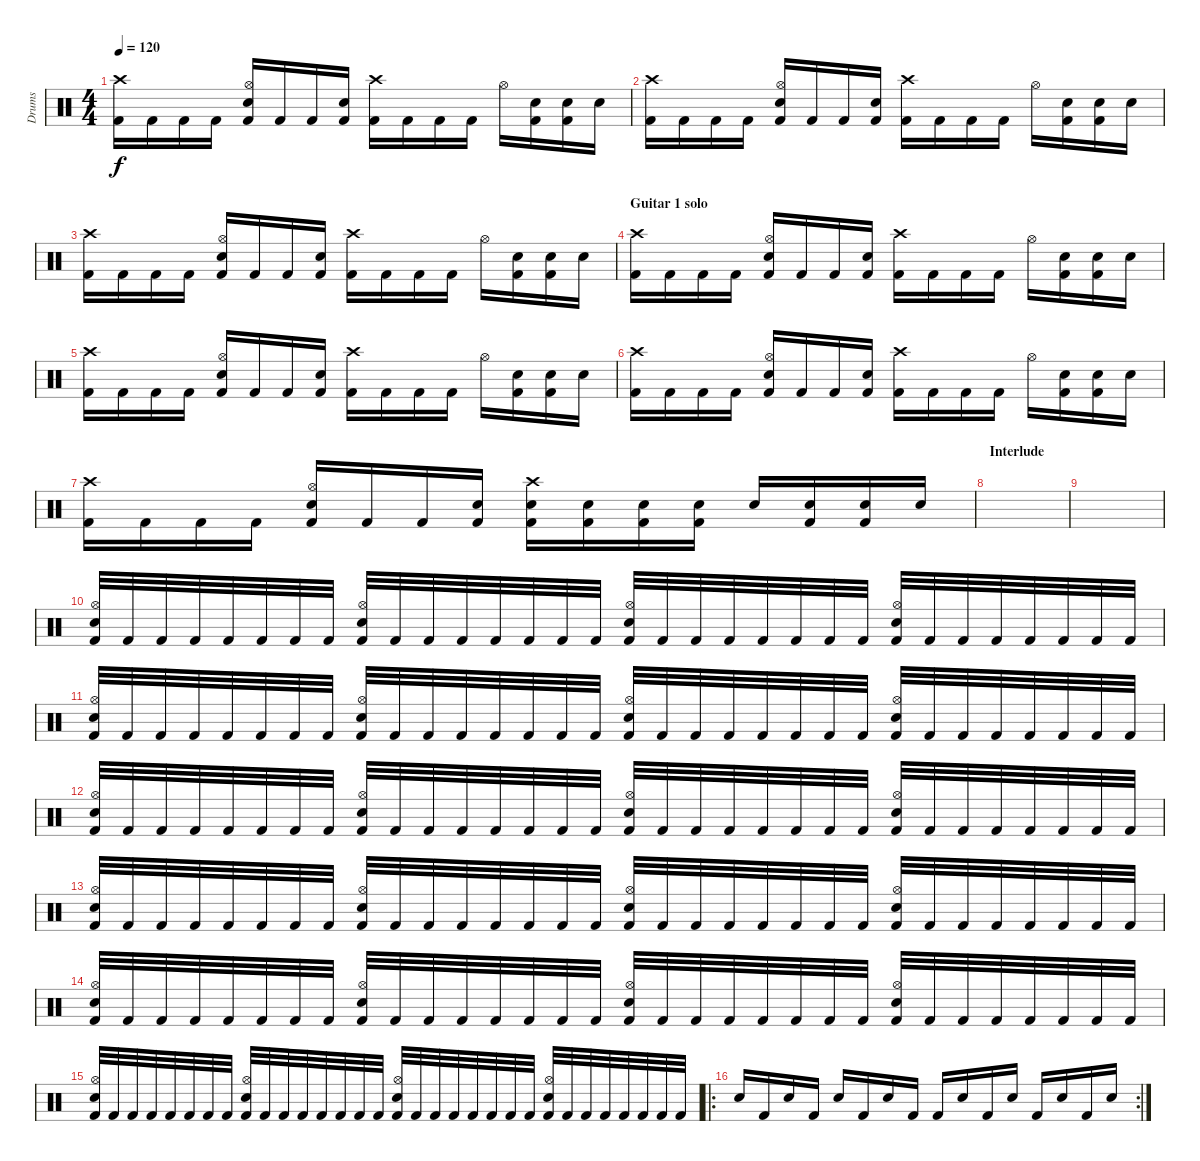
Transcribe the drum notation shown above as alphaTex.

\track ("Drums" "Drums") {instrument percussion}
\staff {score}
\articulation defaults
\ts (4 4)
\tempo 120
\clef neutral
\ks c
("Crash high (hit)" "Kick (hit) 2").16{dy f} "Kick (hit) 2".16 "Kick (hit) 2".16 "Kick (hit) 2".16 ("Hi-Hat (open)" "Electric Snare (hit)" "Kick (hit) 2").16 "Kick (hit) 2".16 "Kick (hit) 2".16 ("Electric Snare (hit)" "Kick (hit) 2").16 ("Crash high (hit)" "Kick (hit) 2").16 "Kick (hit) 2".16 "Kick (hit) 2".16 "Kick (hit) 2".16 "Hi-Hat (open)".16 ("Electric Snare (hit)" "Kick (hit) 2").16 ("Electric Snare (hit)" "Kick (hit) 2").16 "Electric Snare (hit)".16 |
("Crash high (hit)" "Kick (hit) 2").16 "Kick (hit) 2".16 "Kick (hit) 2".16 "Kick (hit) 2".16 ("Hi-Hat (open)" "Electric Snare (hit)" "Kick (hit) 2").16 "Kick (hit) 2".16 "Kick (hit) 2".16 ("Electric Snare (hit)" "Kick (hit) 2").16 ("Crash high (hit)" "Kick (hit) 2").16 "Kick (hit) 2".16 "Kick (hit) 2".16 "Kick (hit) 2".16 "Hi-Hat (open)".16 ("Electric Snare (hit)" "Kick (hit) 2").16 ("Electric Snare (hit)" "Kick (hit) 2").16 "Electric Snare (hit)".16 |
("Crash high (hit)" "Kick (hit) 2").16 "Kick (hit) 2".16 "Kick (hit) 2".16 "Kick (hit) 2".16 ("Hi-Hat (open)" "Electric Snare (hit)" "Kick (hit) 2").16 "Kick (hit) 2".16 "Kick (hit) 2".16 ("Electric Snare (hit)" "Kick (hit) 2").16 ("Crash high (hit)" "Kick (hit) 2").16 "Kick (hit) 2".16 "Kick (hit) 2".16 "Kick (hit) 2".16 "Hi-Hat (open)".16 ("Electric Snare (hit)" "Kick (hit) 2").16 ("Electric Snare (hit)" "Kick (hit) 2").16 "Electric Snare (hit)".16 |
\section ("" "Guitar 1 solo")
("Crash high (hit)" "Kick (hit) 2").16 "Kick (hit) 2".16 "Kick (hit) 2".16 "Kick (hit) 2".16 ("Hi-Hat (open)" "Electric Snare (hit)" "Kick (hit) 2").16 "Kick (hit) 2".16 "Kick (hit) 2".16 ("Electric Snare (hit)" "Kick (hit) 2").16 ("Crash high (hit)" "Kick (hit) 2").16 "Kick (hit) 2".16 "Kick (hit) 2".16 "Kick (hit) 2".16 "Hi-Hat (open)".16 ("Electric Snare (hit)" "Kick (hit) 2").16 ("Electric Snare (hit)" "Kick (hit) 2").16 "Electric Snare (hit)".16 |
("Crash high (hit)" "Kick (hit) 2").16 "Kick (hit) 2".16 "Kick (hit) 2".16 "Kick (hit) 2".16 ("Hi-Hat (open)" "Electric Snare (hit)" "Kick (hit) 2").16 "Kick (hit) 2".16 "Kick (hit) 2".16 ("Electric Snare (hit)" "Kick (hit) 2").16 ("Crash high (hit)" "Kick (hit) 2").16 "Kick (hit) 2".16 "Kick (hit) 2".16 "Kick (hit) 2".16 "Hi-Hat (open)".16 ("Electric Snare (hit)" "Kick (hit) 2").16 ("Electric Snare (hit)" "Kick (hit) 2").16 "Electric Snare (hit)".16 |
("Crash high (hit)" "Kick (hit) 2").16 "Kick (hit) 2".16 "Kick (hit) 2".16 "Kick (hit) 2".16 ("Hi-Hat (open)" "Electric Snare (hit)" "Kick (hit) 2").16 "Kick (hit) 2".16 "Kick (hit) 2".16 ("Electric Snare (hit)" "Kick (hit) 2").16 ("Crash high (hit)" "Kick (hit) 2").16 "Kick (hit) 2".16 "Kick (hit) 2".16 "Kick (hit) 2".16 "Hi-Hat (open)".16 ("Electric Snare (hit)" "Kick (hit) 2").16 ("Electric Snare (hit)" "Kick (hit) 2").16 "Electric Snare (hit)".16 |
("Crash high (hit)" "Kick (hit) 2").16 "Kick (hit) 2".16 "Kick (hit) 2".16 "Kick (hit) 2".16 ("Hi-Hat (open)" "Electric Snare (hit)" "Kick (hit) 2").16 "Kick (hit) 2".16 "Kick (hit) 2".16 ("Electric Snare (hit)" "Kick (hit) 2").16 ("Crash high (hit)" "Electric Snare (hit)" "Kick (hit) 2").16 ("Electric Snare (hit)" "Kick (hit) 2").16 ("Electric Snare (hit)" "Kick (hit) 2").16 ("Electric Snare (hit)" "Kick (hit) 2").16 "Electric Snare (hit)".16 ("Electric Snare (hit)" "Kick (hit) 2").16 ("Electric Snare (hit)" "Kick (hit) 2").16 "Electric Snare (hit)".16 |
\section ("" "Interlude")
|
|
("Hi-Hat (open)" "Electric Snare (hit)" "Kick (hit) 2").32 "Kick (hit) 2".32 "Kick (hit) 2".32 "Kick (hit) 2".32 "Kick (hit) 2".32 "Kick (hit) 2".32 "Kick (hit) 2".32 "Kick (hit) 2".32 ("Hi-Hat (open)" "Electric Snare (hit)" "Kick (hit) 2").32 "Kick (hit) 2".32 "Kick (hit) 2".32 "Kick (hit) 2".32 "Kick (hit) 2".32 "Kick (hit) 2".32 "Kick (hit) 2".32 "Kick (hit) 2".32 ("Hi-Hat (open)" "Electric Snare (hit)" "Kick (hit) 2").32 "Kick (hit) 2".32 "Kick (hit) 2".32 "Kick (hit) 2".32 "Kick (hit) 2".32 "Kick (hit) 2".32 "Kick (hit) 2".32 "Kick (hit) 2".32 ("Hi-Hat (open)" "Electric Snare (hit)" "Kick (hit) 2").32 "Kick (hit) 2".32 "Kick (hit) 2".32 "Kick (hit) 2".32 "Kick (hit) 2".32 "Kick (hit) 2".32 "Kick (hit) 2".32 "Kick (hit) 2".32 |
("Hi-Hat (open)" "Electric Snare (hit)" "Kick (hit) 2").32 "Kick (hit) 2".32 "Kick (hit) 2".32 "Kick (hit) 2".32 "Kick (hit) 2".32 "Kick (hit) 2".32 "Kick (hit) 2".32 "Kick (hit) 2".32 ("Hi-Hat (open)" "Electric Snare (hit)" "Kick (hit) 2").32 "Kick (hit) 2".32 "Kick (hit) 2".32 "Kick (hit) 2".32 "Kick (hit) 2".32 "Kick (hit) 2".32 "Kick (hit) 2".32 "Kick (hit) 2".32 ("Hi-Hat (open)" "Electric Snare (hit)" "Kick (hit) 2").32 "Kick (hit) 2".32 "Kick (hit) 2".32 "Kick (hit) 2".32 "Kick (hit) 2".32 "Kick (hit) 2".32 "Kick (hit) 2".32 "Kick (hit) 2".32 ("Hi-Hat (open)" "Electric Snare (hit)" "Kick (hit) 2").32 "Kick (hit) 2".32 "Kick (hit) 2".32 "Kick (hit) 2".32 "Kick (hit) 2".32 "Kick (hit) 2".32 "Kick (hit) 2".32 "Kick (hit) 2".32 |
("Hi-Hat (open)" "Electric Snare (hit)" "Kick (hit) 2").32 "Kick (hit) 2".32 "Kick (hit) 2".32 "Kick (hit) 2".32 "Kick (hit) 2".32 "Kick (hit) 2".32 "Kick (hit) 2".32 "Kick (hit) 2".32 ("Hi-Hat (open)" "Electric Snare (hit)" "Kick (hit) 2").32 "Kick (hit) 2".32 "Kick (hit) 2".32 "Kick (hit) 2".32 "Kick (hit) 2".32 "Kick (hit) 2".32 "Kick (hit) 2".32 "Kick (hit) 2".32 ("Hi-Hat (open)" "Electric Snare (hit)" "Kick (hit) 2").32 "Kick (hit) 2".32 "Kick (hit) 2".32 "Kick (hit) 2".32 "Kick (hit) 2".32 "Kick (hit) 2".32 "Kick (hit) 2".32 "Kick (hit) 2".32 ("Hi-Hat (open)" "Electric Snare (hit)" "Kick (hit) 2").32 "Kick (hit) 2".32 "Kick (hit) 2".32 "Kick (hit) 2".32 "Kick (hit) 2".32 "Kick (hit) 2".32 "Kick (hit) 2".32 "Kick (hit) 2".32 |
("Hi-Hat (open)" "Electric Snare (hit)" "Kick (hit) 2").32 "Kick (hit) 2".32 "Kick (hit) 2".32 "Kick (hit) 2".32 "Kick (hit) 2".32 "Kick (hit) 2".32 "Kick (hit) 2".32 "Kick (hit) 2".32 ("Hi-Hat (open)" "Electric Snare (hit)" "Kick (hit) 2").32 "Kick (hit) 2".32 "Kick (hit) 2".32 "Kick (hit) 2".32 "Kick (hit) 2".32 "Kick (hit) 2".32 "Kick (hit) 2".32 "Kick (hit) 2".32 ("Hi-Hat (open)" "Electric Snare (hit)" "Kick (hit) 2").32 "Kick (hit) 2".32 "Kick (hit) 2".32 "Kick (hit) 2".32 "Kick (hit) 2".32 "Kick (hit) 2".32 "Kick (hit) 2".32 "Kick (hit) 2".32 ("Hi-Hat (open)" "Electric Snare (hit)" "Kick (hit) 2").32 "Kick (hit) 2".32 "Kick (hit) 2".32 "Kick (hit) 2".32 "Kick (hit) 2".32 "Kick (hit) 2".32 "Kick (hit) 2".32 "Kick (hit) 2".32 |
("Hi-Hat (open)" "Electric Snare (hit)" "Kick (hit) 2").32 "Kick (hit) 2".32 "Kick (hit) 2".32 "Kick (hit) 2".32 "Kick (hit) 2".32 "Kick (hit) 2".32 "Kick (hit) 2".32 "Kick (hit) 2".32 ("Hi-Hat (open)" "Electric Snare (hit)" "Kick (hit) 2").32 "Kick (hit) 2".32 "Kick (hit) 2".32 "Kick (hit) 2".32 "Kick (hit) 2".32 "Kick (hit) 2".32 "Kick (hit) 2".32 "Kick (hit) 2".32 ("Hi-Hat (open)" "Electric Snare (hit)" "Kick (hit) 2").32 "Kick (hit) 2".32 "Kick (hit) 2".32 "Kick (hit) 2".32 "Kick (hit) 2".32 "Kick (hit) 2".32 "Kick (hit) 2".32 "Kick (hit) 2".32 ("Hi-Hat (open)" "Electric Snare (hit)" "Kick (hit) 2").32 "Kick (hit) 2".32 "Kick (hit) 2".32 "Kick (hit) 2".32 "Kick (hit) 2".32 "Kick (hit) 2".32 "Kick (hit) 2".32 "Kick (hit) 2".32 |
("Hi-Hat (open)" "Electric Snare (hit)" "Kick (hit) 2").32 "Kick (hit) 2".32 "Kick (hit) 2".32 "Kick (hit) 2".32 "Kick (hit) 2".32 "Kick (hit) 2".32 "Kick (hit) 2".32 "Kick (hit) 2".32 ("Hi-Hat (open)" "Electric Snare (hit)" "Kick (hit) 2").32 "Kick (hit) 2".32 "Kick (hit) 2".32 "Kick (hit) 2".32 "Kick (hit) 2".32 "Kick (hit) 2".32 "Kick (hit) 2".32 "Kick (hit) 2".32 ("Hi-Hat (open)" "Electric Snare (hit)" "Kick (hit) 2").32 "Kick (hit) 2".32 "Kick (hit) 2".32 "Kick (hit) 2".32 "Kick (hit) 2".32 "Kick (hit) 2".32 "Kick (hit) 2".32 "Kick (hit) 2".32 ("Hi-Hat (open)" "Electric Snare (hit)" "Kick (hit) 2").32 "Kick (hit) 2".32 "Kick (hit) 2".32 "Kick (hit) 2".32 "Kick (hit) 2".32 "Kick (hit) 2".32 "Kick (hit) 2".32 "Kick (hit) 2".32 |
\ro
\rc 2 "Electric Snare (hit)".16 "Kick (hit) 2".16 "Electric Snare (hit)".16 "Kick (hit) 2".16 "Electric Snare (hit)".16 "Kick (hit) 2".16 "Electric Snare (hit)".16 "Kick (hit) 2".16 "Kick (hit) 2".16 "Electric Snare (hit)".16 "Kick (hit) 2".16 "Electric Snare (hit)".16 "Kick (hit) 2".16 "Electric Snare (hit)".16 "Kick (hit) 2".16 "Electric Snare (hit)".16
